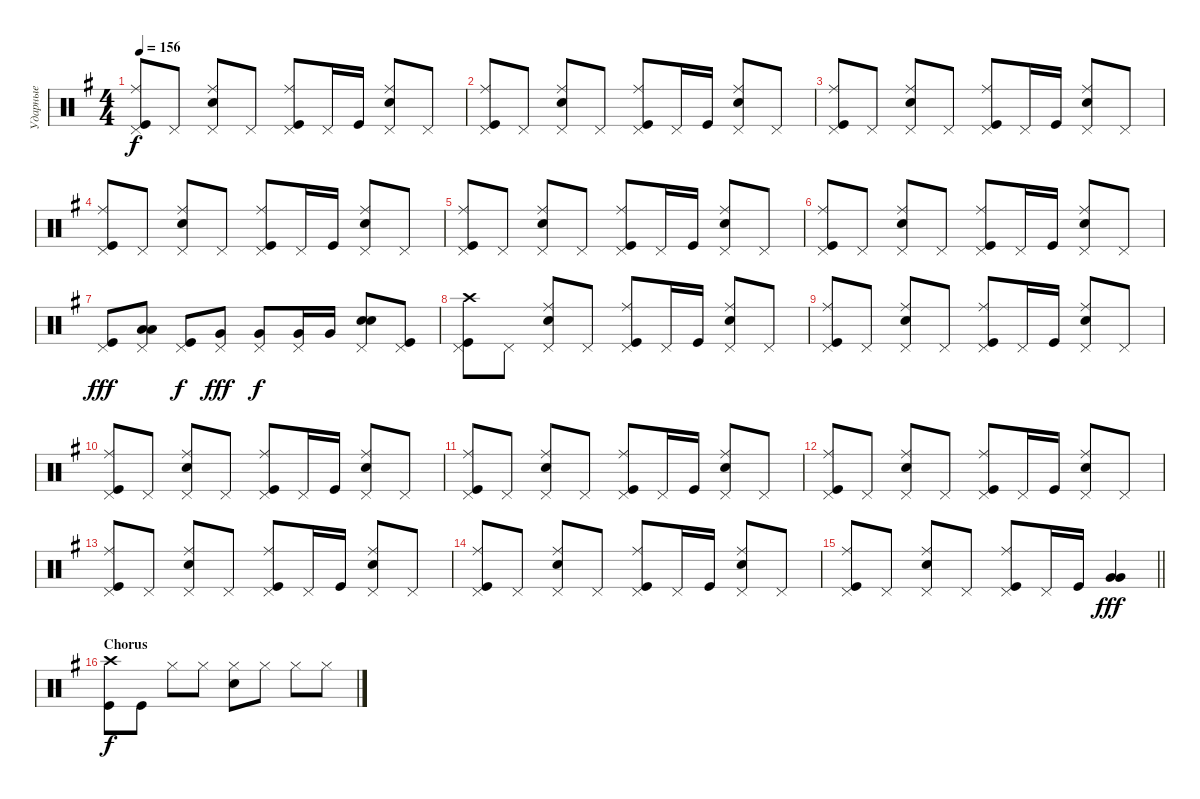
\track ("Ударные" "Ударные") {instrument percussion}
\staff {score}
\articulation defaults
\ts (4 4)
\tempo 156
\clef neutral
\ks eminor
("Kick (hit)" "Ride (middle)" "Pedal Hi-Hat (hit)").8{dy f} "Pedal Hi-Hat (hit)".8 ("Snare (hit) 2" "Ride (middle)" "Pedal Hi-Hat (hit)").8 "Pedal Hi-Hat (hit)".8 ("Kick (hit)" "Ride (middle)" "Pedal Hi-Hat (hit)").8 "Pedal Hi-Hat (hit)".16 "Kick (hit)".16 ("Snare (hit) 2" "Ride (middle)" "Pedal Hi-Hat (hit)").8 "Pedal Hi-Hat (hit)".8 |
("Kick (hit)" "Ride (middle)" "Pedal Hi-Hat (hit)").8 "Pedal Hi-Hat (hit)".8 ("Snare (hit) 2" "Ride (middle)" "Pedal Hi-Hat (hit)").8 "Pedal Hi-Hat (hit)".8 ("Kick (hit)" "Ride (middle)" "Pedal Hi-Hat (hit)").8 "Pedal Hi-Hat (hit)".16 "Kick (hit)".16 ("Snare (hit) 2" "Ride (middle)" "Pedal Hi-Hat (hit)").8 "Pedal Hi-Hat (hit)".8 |
("Kick (hit)" "Ride (middle)" "Pedal Hi-Hat (hit)").8 "Pedal Hi-Hat (hit)".8 ("Snare (hit) 2" "Ride (middle)" "Pedal Hi-Hat (hit)").8 "Pedal Hi-Hat (hit)".8 ("Kick (hit)" "Ride (middle)" "Pedal Hi-Hat (hit)").8 "Pedal Hi-Hat (hit)".16 "Kick (hit)".16 ("Snare (hit) 2" "Ride (middle)" "Pedal Hi-Hat (hit)").8 "Pedal Hi-Hat (hit)".8 |
("Kick (hit)" "Ride (middle)" "Pedal Hi-Hat (hit)").8 "Pedal Hi-Hat (hit)".8 ("Snare (hit) 2" "Ride (middle)" "Pedal Hi-Hat (hit)").8 "Pedal Hi-Hat (hit)".8 ("Kick (hit)" "Ride (middle)" "Pedal Hi-Hat (hit)").8 "Pedal Hi-Hat (hit)".16 "Kick (hit)".16 ("Snare (hit) 2" "Ride (middle)" "Pedal Hi-Hat (hit)").8 "Pedal Hi-Hat (hit)".8 |
("Kick (hit)" "Ride (middle)" "Pedal Hi-Hat (hit)").8 "Pedal Hi-Hat (hit)".8 ("Snare (hit) 2" "Ride (middle)" "Pedal Hi-Hat (hit)").8 "Pedal Hi-Hat (hit)".8 ("Kick (hit)" "Ride (middle)" "Pedal Hi-Hat (hit)").8 "Pedal Hi-Hat (hit)".16 "Kick (hit)".16 ("Snare (hit) 2" "Ride (middle)" "Pedal Hi-Hat (hit)").8 "Pedal Hi-Hat (hit)".8 |
("Kick (hit)" "Ride (middle)" "Pedal Hi-Hat (hit)").8 "Pedal Hi-Hat (hit)".8 ("Snare (hit) 2" "Ride (middle)" "Pedal Hi-Hat (hit)").8 "Pedal Hi-Hat (hit)".8 ("Kick (hit)" "Ride (middle)" "Pedal Hi-Hat (hit)").8 "Pedal Hi-Hat (hit)".16 "Kick (hit)".16 ("Snare (hit) 2" "Ride (middle)" "Pedal Hi-Hat (hit)").8 "Pedal Hi-Hat (hit)".8 |
("Kick (hit)" "Pedal Hi-Hat (hit)").8{dy fff} ("Low Tom (hit)" "Low Tom (hit)" "Pedal Hi-Hat (hit)").8{bd 480} ("Kick (hit)" "Pedal Hi-Hat (hit)").8{dy f} ("Very Low Tom (hit)" "Pedal Hi-Hat (hit)").8{dy fff} ("Very Low Tom (hit)" "Pedal Hi-Hat (hit)").8{dy f} ("Very Low Tom (hit)" "Pedal Hi-Hat (hit)").16 "Very Low Tom (hit)".16 ("Snare (hit) 2" "Snare (hit) 2" "Pedal Hi-Hat (hit)").8{bd 240} ("Pedal Hi-Hat (hit)" "Kick (hit)").8 |
("Kick (hit)" "Crash high (hit)" "Pedal Hi-Hat (hit)").8 "Pedal Hi-Hat (hit)".8 ("Snare (hit) 2" "Ride (middle)" "Pedal Hi-Hat (hit)").8 "Pedal Hi-Hat (hit)".8 ("Kick (hit)" "Ride (middle)" "Pedal Hi-Hat (hit)").8 "Pedal Hi-Hat (hit)".16 "Kick (hit)".16 ("Snare (hit) 2" "Ride (middle)" "Pedal Hi-Hat (hit)").8 "Pedal Hi-Hat (hit)".8 |
("Kick (hit)" "Ride (middle)" "Pedal Hi-Hat (hit)").8 "Pedal Hi-Hat (hit)".8 ("Snare (hit) 2" "Ride (middle)" "Pedal Hi-Hat (hit)").8 "Pedal Hi-Hat (hit)".8 ("Kick (hit)" "Ride (middle)" "Pedal Hi-Hat (hit)").8 "Pedal Hi-Hat (hit)".16 "Kick (hit)".16 ("Snare (hit) 2" "Ride (middle)" "Pedal Hi-Hat (hit)").8 "Pedal Hi-Hat (hit)".8 |
("Kick (hit)" "Ride (middle)" "Pedal Hi-Hat (hit)").8 "Pedal Hi-Hat (hit)".8 ("Snare (hit) 2" "Ride (middle)" "Pedal Hi-Hat (hit)").8 "Pedal Hi-Hat (hit)".8 ("Kick (hit)" "Ride (middle)" "Pedal Hi-Hat (hit)").8 "Pedal Hi-Hat (hit)".16 "Kick (hit)".16 ("Snare (hit) 2" "Ride (middle)" "Pedal Hi-Hat (hit)").8 "Pedal Hi-Hat (hit)".8 |
("Kick (hit)" "Ride (middle)" "Pedal Hi-Hat (hit)").8 "Pedal Hi-Hat (hit)".8 ("Snare (hit) 2" "Ride (middle)" "Pedal Hi-Hat (hit)").8 "Pedal Hi-Hat (hit)".8 ("Kick (hit)" "Ride (middle)" "Pedal Hi-Hat (hit)").8 "Pedal Hi-Hat (hit)".16 "Kick (hit)".16 ("Snare (hit) 2" "Ride (middle)" "Pedal Hi-Hat (hit)").8 "Pedal Hi-Hat (hit)".8 |
("Kick (hit)" "Ride (middle)" "Pedal Hi-Hat (hit)").8 "Pedal Hi-Hat (hit)".8 ("Snare (hit) 2" "Ride (middle)" "Pedal Hi-Hat (hit)").8 "Pedal Hi-Hat (hit)".8 ("Kick (hit)" "Ride (middle)" "Pedal Hi-Hat (hit)").8 "Pedal Hi-Hat (hit)".16 "Kick (hit)".16 ("Snare (hit) 2" "Ride (middle)" "Pedal Hi-Hat (hit)").8 "Pedal Hi-Hat (hit)".8 |
("Kick (hit)" "Ride (middle)" "Pedal Hi-Hat (hit)").8 "Pedal Hi-Hat (hit)".8 ("Snare (hit) 2" "Ride (middle)" "Pedal Hi-Hat (hit)").8 "Pedal Hi-Hat (hit)".8 ("Kick (hit)" "Ride (middle)" "Pedal Hi-Hat (hit)").8 "Pedal Hi-Hat (hit)".16 "Kick (hit)".16 ("Snare (hit) 2" "Ride (middle)" "Pedal Hi-Hat (hit)").8 "Pedal Hi-Hat (hit)".8 |
("Kick (hit)" "Ride (middle)" "Pedal Hi-Hat (hit)").8 "Pedal Hi-Hat (hit)".8 ("Snare (hit) 2" "Ride (middle)" "Pedal Hi-Hat (hit)").8 "Pedal Hi-Hat (hit)".8 ("Kick (hit)" "Ride (middle)" "Pedal Hi-Hat (hit)").8 "Pedal Hi-Hat (hit)".16 "Kick (hit)".16 ("Snare (hit) 2" "Ride (middle)" "Pedal Hi-Hat (hit)").8 "Pedal Hi-Hat (hit)".8 |
\barLineRight lightlight
("Kick (hit)" "Pedal Hi-Hat (hit)" "Ride (middle)").8 "Pedal Hi-Hat (hit)".8 ("Snare (hit) 2" "Pedal Hi-Hat (hit)" "Ride (middle)").8 "Pedal Hi-Hat (hit)".8 ("Kick (hit)" "Pedal Hi-Hat (hit)" "Ride (middle)").8 "Pedal Hi-Hat (hit)".16 "Kick (hit)".16 ("Very Low Tom (hit)" "Very Low Tom (hit)").4{bd 240 dy fff} |
\section ("" "Chorus")
("Kick (hit)" "Crash high (hit)").8{dy f} "Kick (hit)".8 "Hi-Hat (closed)".8 "Hi-Hat (closed)".8 ("Hi-Hat (closed)" "Snare (hit) 2").8 "Hi-Hat (closed)".8 "Hi-Hat (closed)".8 "Hi-Hat (closed)".8
